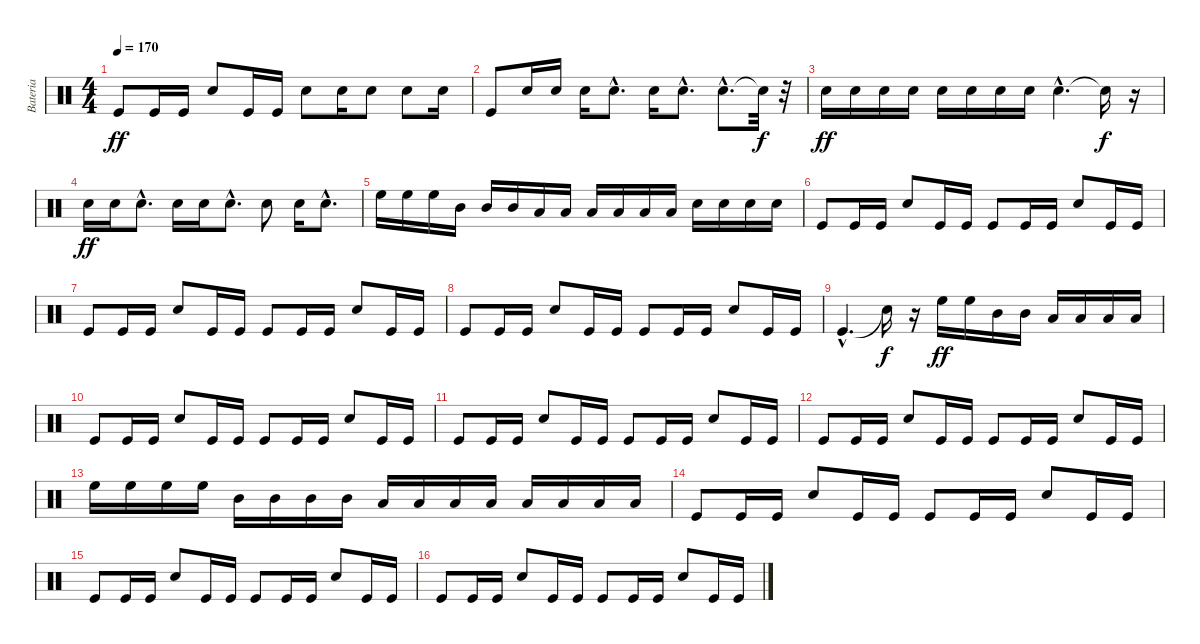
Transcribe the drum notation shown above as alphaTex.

\track ("Bateria" "Bateria") {instrument percussion}
\staff {score}
\articulation defaults
\ts (4 4)
\tempo 170
\clef neutral
\ks c "Kick (hit)".8{dy ff} "Kick (hit)".16 "Kick (hit)".16 "Electric Snare (hit)".8 "Kick (hit)".16 "Kick (hit)".16 "Electric Snare (hit)".8 "Electric Snare (hit)".16 "Electric Snare (hit)".8 "Electric Snare (hit)".8 "Electric Snare (hit)".16
|
"Kick (hit)".8 "Electric Snare (hit)".16 "Electric Snare (hit)".16 "Electric Snare (hit)".16 "Electric Snare (hit)"{hac}.8{d} "Electric Snare (hit)".16 "Electric Snare (hit)"{hac}.8{d} "Electric Snare (hit)"{hac}.8{d} "Snare (hit)"{t}.32{dy f} r.32 |
"Electric Snare (hit)".16{dy ff} "Electric Snare (hit)".16 "Electric Snare (hit)".16 "Electric Snare (hit)".16 "Electric Snare (hit)".16 "Electric Snare (hit)".16 "Electric Snare (hit)".16 "Electric Snare (hit)".16 "Electric Snare (hit)"{hac}.4{d} "Snare (hit)"{t}.16{dy f} r.16 |
"Electric Snare (hit)".16{dy ff} "Electric Snare (hit)".16 "Electric Snare (hit)"{hac}.8{d} "Electric Snare (hit)".16 "Electric Snare (hit)".16 "Electric Snare (hit)"{hac}.8{d} "Electric Snare (hit)".8 "Electric Snare (hit)".16 "Electric Snare (hit)"{hac}.8{d} |
"High Floor Tom (hit)".16 "High Floor Tom (hit)".16 "High Floor Tom (hit)".16 "Mid Tom (hit)".16 "Mid Tom (hit)".16 "Mid Tom (hit)".16 "Low Tom (hit)".16 "Low Tom (hit)".16 "Low Tom (hit)".16 "Low Floor Tom (hit)".16 "Low Floor Tom (hit)".16 "Low Floor Tom (hit)".16 "Electric Snare (hit)".16 "Electric Snare (hit)".16 "Electric Snare (hit)".16 "Electric Snare (hit)".16 |
"Kick (hit)".8 "Kick (hit)".16 "Kick (hit)".16 "Electric Snare (hit)".8 "Kick (hit)".16 "Kick (hit)".16 "Kick (hit)".8 "Kick (hit)".16 "Kick (hit)".16 "Electric Snare (hit)".8 "Kick (hit)".16 "Kick (hit)".16 |
"Kick (hit)".8 "Kick (hit)".16 "Kick (hit)".16 "Electric Snare (hit)".8 "Kick (hit)".16 "Kick (hit)".16 "Kick (hit)".8 "Kick (hit)".16 "Kick (hit)".16 "Electric Snare (hit)".8 "Kick (hit)".16 "Kick (hit)".16 |
"Kick (hit)".8 "Kick (hit)".16 "Kick (hit)".16 "Electric Snare (hit)".8 "Kick (hit)".16 "Kick (hit)".16 "Kick (hit)".8 "Kick (hit)".16 "Kick (hit)".16 "Electric Snare (hit)".8 "Kick (hit)".16 "Kick (hit)".16 |
"Kick (hit)"{hac}.4{d} "Snare (hit)"{t}.16{dy f} r.16 "High Floor Tom (hit)".16{dy ff} "High Floor Tom (hit)".16 "Mid Tom (hit)".16 "Mid Tom (hit)".16 "Low Tom (hit)".16 "Low Tom (hit)".16 "Low Floor Tom (hit)".16 "Low Floor Tom (hit)".16 |
"Kick (hit)".8 "Kick (hit)".16 "Kick (hit)".16 "Electric Snare (hit)".8 "Kick (hit)".16 "Kick (hit)".16 "Kick (hit)".8 "Kick (hit)".16 "Kick (hit)".16 "Electric Snare (hit)".8 "Kick (hit)".16 "Kick (hit)".16 |
"Kick (hit)".8 "Kick (hit)".16 "Kick (hit)".16 "Electric Snare (hit)".8 "Kick (hit)".16 "Kick (hit)".16 "Kick (hit)".8 "Kick (hit)".16 "Kick (hit)".16 "Electric Snare (hit)".8 "Kick (hit)".16 "Kick (hit)".16 |
"Kick (hit)".8 "Kick (hit)".16 "Kick (hit)".16 "Electric Snare (hit)".8 "Kick (hit)".16 "Kick (hit)".16 "Kick (hit)".8 "Kick (hit)".16 "Kick (hit)".16 "Electric Snare (hit)".8 "Kick (hit)".16 "Kick (hit)".16 |
"High Floor Tom (hit)".16 "High Floor Tom (hit)".16 "High Floor Tom (hit)".16 "High Floor Tom (hit)".16 "Mid Tom (hit)".16 "Mid Tom (hit)".16 "Mid Tom (hit)".16 "Mid Tom (hit)".16 "Low Tom (hit)".16 "Low Tom (hit)".16 "Low Tom (hit)".16 "Low Tom (hit)".16 "Low Floor Tom (hit)".16 "Low Floor Tom (hit)".16 "Low Floor Tom (hit)".16 "Low Floor Tom (hit)".16 |
"Kick (hit)".8 "Kick (hit)".16 "Kick (hit)".16 "Electric Snare (hit)".8 "Kick (hit)".16 "Kick (hit)".16 "Kick (hit)".8 "Kick (hit)".16 "Kick (hit)".16 "Electric Snare (hit)".8 "Kick (hit)".16 "Kick (hit)".16 |
"Kick (hit)".8 "Kick (hit)".16 "Kick (hit)".16 "Electric Snare (hit)".8 "Kick (hit)".16 "Kick (hit)".16 "Kick (hit)".8 "Kick (hit)".16 "Kick (hit)".16 "Electric Snare (hit)".8 "Kick (hit)".16 "Kick (hit)".16 |
"Kick (hit)".8 "Kick (hit)".16 "Kick (hit)".16 "Electric Snare (hit)".8 "Kick (hit)".16 "Kick (hit)".16 "Kick (hit)".8 "Kick (hit)".16 "Kick (hit)".16 "Electric Snare (hit)".8 "Kick (hit)".16 "Kick (hit)".16
